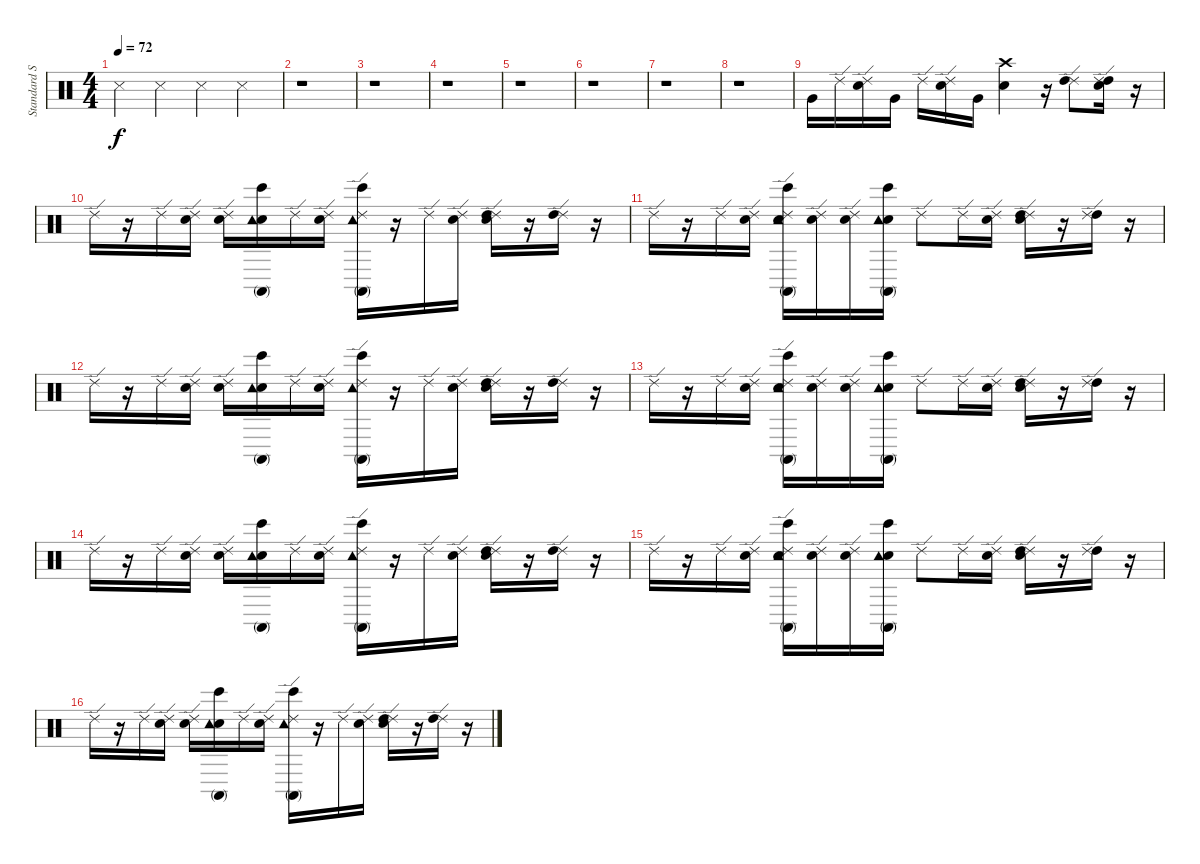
\track ("Standard Set" "Standard S") {instrument percussion}
\staff {score}
\articulation defaults
\ts (4 4)
\tempo 72
\clef neutral
\ks c "Metronome (hit)".4{dy f} "Metronome (hit)".4 "Metronome (hit)".4 "Metronome (hit)".4
|
r.1 |
r.1 |
r.1 |
r.1 |
r.1 |
r.1 |
r.1 |
"Very Low Tom (hit)".16 "Ride (edge) 2".16 ("Snare (hit)" "Ride (edge) 2").16 "Very Low Tom (hit)".16 "Ride (edge) 2".16 ("Snare (hit)" "Ride (edge) 2").16 "Very Low Tom (hit)".16 ("Snare (hit)" "Crash high (hit)").4 r.16 ("Ride (edge) 2" "High Tom (hit)").8 ("Snare (hit)" "High Tom (hit)" "Ride (edge) 2").16 r.16 |
"Ride (edge) 2".16 r.16 "Ride (edge) 2".16 ("Snare (hit)" "Ride (edge) 2").16 ("Snare (hit)" "Ride (edge) 2").16 ("Snare (hit)" "Conga high (mute)" "Bongo High (hit)" "Tambourine (hit)").16 "Ride (edge) 2".16 ("Snare (hit)" "Ride (edge) 2").16 ("Bongo High (hit)" "Conga high (mute)" "Ride (edge) 2" "Tambourine (hit)").16 r.16 "Ride (edge) 2".16 ("Snare (hit)" "Ride (edge) 2").16 ("Snare (hit)" "Ride (edge) 2" "High Tom (hit)").16 r.16 ("Ride (edge) 2" "High Tom (hit)").16 r.16 |
"Ride (edge) 2".16 r.16 "Ride (edge) 2".16 ("Snare (hit)" "Ride (edge) 2").16 ("Snare (hit)" "Ride (edge) 2" "Conga high (mute)" "Bongo High (hit)" "Tambourine (hit)").16 ("Snare (hit)" "Ride (edge) 2").16 ("Snare (hit)" "Ride (edge) 2").16 ("Snare (hit)" "Conga high (mute)" "Bongo High (hit)" "Tambourine (hit)").16 "Ride (edge) 2".8 "Ride (edge) 2".16 ("Snare (hit)" "Ride (edge) 2").16 ("Snare (hit)" "Ride (edge) 2" "High Tom (hit)").16 r.16 ("High Tom (hit)" "Ride (edge) 2").16 r.16 |
"Ride (edge) 2".16 r.16 "Ride (edge) 2".16 ("Snare (hit)" "Ride (edge) 2").16 ("Snare (hit)" "Ride (edge) 2").16 ("Snare (hit)" "Conga high (mute)" "Bongo High (hit)" "Tambourine (hit)").16 "Ride (edge) 2".16 ("Snare (hit)" "Ride (edge) 2").16 ("Bongo High (hit)" "Conga high (mute)" "Ride (edge) 2" "Tambourine (hit)").16 r.16 "Ride (edge) 2".16 ("Snare (hit)" "Ride (edge) 2").16 ("Snare (hit)" "Ride (edge) 2" "High Tom (hit)").16 r.16 ("Ride (edge) 2" "High Tom (hit)").16 r.16 |
"Ride (edge) 2".16 r.16 "Ride (edge) 2".16 ("Snare (hit)" "Ride (edge) 2").16 ("Snare (hit)" "Ride (edge) 2" "Conga high (mute)" "Bongo High (hit)" "Tambourine (hit)").16 ("Snare (hit)" "Ride (edge) 2").16 ("Snare (hit)" "Ride (edge) 2").16 ("Snare (hit)" "Conga high (mute)" "Bongo High (hit)" "Tambourine (hit)").16 "Ride (edge) 2".8 "Ride (edge) 2".16 ("Snare (hit)" "Ride (edge) 2").16 ("Snare (hit)" "Ride (edge) 2" "High Tom (hit)").16 r.16 ("High Tom (hit)" "Ride (edge) 2").16 r.16 |
"Ride (edge) 2".16 r.16 "Ride (edge) 2".16 ("Snare (hit)" "Ride (edge) 2").16 ("Snare (hit)" "Ride (edge) 2").16 ("Snare (hit)" "Conga high (mute)" "Bongo High (hit)" "Tambourine (hit)").16 "Ride (edge) 2".16 ("Snare (hit)" "Ride (edge) 2").16 ("Bongo High (hit)" "Conga high (mute)" "Ride (edge) 2" "Tambourine (hit)").16 r.16 "Ride (edge) 2".16 ("Snare (hit)" "Ride (edge) 2").16 ("Snare (hit)" "Ride (edge) 2" "High Tom (hit)").16 r.16 ("Ride (edge) 2" "High Tom (hit)").16 r.16 |
"Ride (edge) 2".16 r.16 "Ride (edge) 2".16 ("Snare (hit)" "Ride (edge) 2").16 ("Snare (hit)" "Ride (edge) 2" "Conga high (mute)" "Bongo High (hit)" "Tambourine (hit)").16 ("Snare (hit)" "Ride (edge) 2").16 ("Snare (hit)" "Ride (edge) 2").16 ("Snare (hit)" "Conga high (mute)" "Bongo High (hit)" "Tambourine (hit)").16 "Ride (edge) 2".8 "Ride (edge) 2".16 ("Snare (hit)" "Ride (edge) 2").16 ("Snare (hit)" "Ride (edge) 2" "High Tom (hit)").16 r.16 ("High Tom (hit)" "Ride (edge) 2").16 r.16 |
"Ride (edge) 2".16 r.16 "Ride (edge) 2".16 ("Snare (hit)" "Ride (edge) 2").16 ("Snare (hit)" "Ride (edge) 2").16 ("Snare (hit)" "Conga high (mute)" "Bongo High (hit)" "Tambourine (hit)").16 "Ride (edge) 2".16 ("Snare (hit)" "Ride (edge) 2").16 ("Bongo High (hit)" "Conga high (mute)" "Ride (edge) 2" "Tambourine (hit)").16 r.16 "Ride (edge) 2".16 ("Snare (hit)" "Ride (edge) 2").16 ("Snare (hit)" "Ride (edge) 2" "High Tom (hit)").16 r.16 ("Ride (edge) 2" "High Tom (hit)").16 r.16
